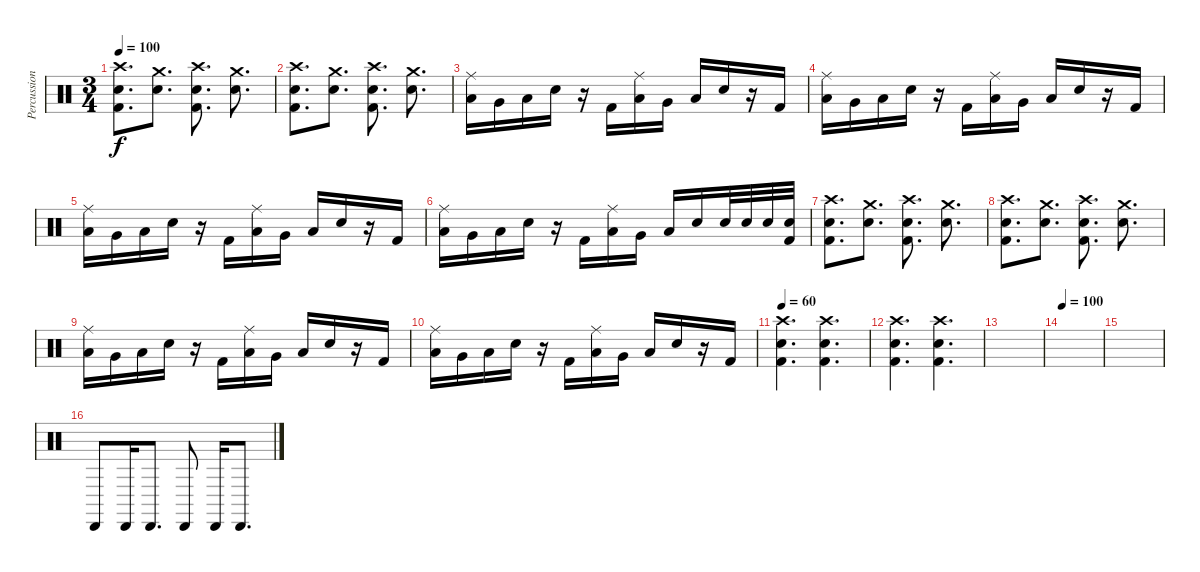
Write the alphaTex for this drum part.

\track ("Percussion" "Percussion") {instrument percussion}
\staff {score}
\articulation defaults
\ts (3 4)
\tempo 100
\clef neutral
\ks c
("Crash high (hit)" "Snare (hit) 2" "Kick (hit) 2").8{d dy f} ("Crash medium (hit)" "Snare (hit) 2").8{d} ("Crash high (hit)" "Snare (hit) 2" "Kick (hit) 2").8{d} ("Crash medium (hit)" "Snare (hit) 2").8{d} |
("Crash high (hit)" "Snare (hit) 2" "Kick (hit) 2").8{d} ("Crash medium (hit)" "Snare (hit) 2").8{d} ("Crash high (hit)" "Snare (hit) 2" "Kick (hit) 2").8{d} ("Crash medium (hit)" "Snare (hit) 2").8{d} |
("Ride (middle)" "Low Floor Tom (hit)").16 "Very Low Tom (hit)".16 "Low Floor Tom (hit)".16 "Snare (hit) 2".16 r.16 "Kick (hit) 2".16 ("Ride (middle)" "Low Floor Tom (hit)").16 "Very Low Tom (hit)".16 "Low Floor Tom (hit)".16 "Snare (hit) 2".16 r.16 "Kick (hit) 2".16 |
("Ride (middle)" "Low Floor Tom (hit)").16 "Very Low Tom (hit)".16 "Low Floor Tom (hit)".16 "Snare (hit) 2".16 r.16 "Kick (hit) 2".16 ("Ride (middle)" "Low Floor Tom (hit)").16 "Very Low Tom (hit)".16 "Low Floor Tom (hit)".16 "Snare (hit) 2".16 r.16 "Kick (hit) 2".16 |
("Ride (middle)" "Low Floor Tom (hit)").16 "Very Low Tom (hit)".16 "Low Floor Tom (hit)".16 "Snare (hit) 2".16 r.16 "Kick (hit) 2".16 ("Ride (middle)" "Low Floor Tom (hit)").16 "Very Low Tom (hit)".16 "Low Floor Tom (hit)".16 "Snare (hit) 2".16 r.16 "Kick (hit) 2".16 |
("Ride (middle)" "Low Floor Tom (hit)").16 "Very Low Tom (hit)".16 "Low Floor Tom (hit)".16 "Snare (hit) 2".16 r.16 "Kick (hit) 2".16 ("Ride (middle)" "Low Floor Tom (hit)").16 "Very Low Tom (hit)".16 "Low Floor Tom (hit)".16 "Snare (hit) 2".16 "Snare (hit) 2".32 "Snare (hit) 2".32 "Snare (hit) 2".32 ("Snare (hit) 2" "Kick (hit) 2").32 |
("Crash high (hit)" "Snare (hit) 2" "Kick (hit) 2").8{d} ("Crash medium (hit)" "Snare (hit) 2").8{d} ("Crash high (hit)" "Snare (hit) 2" "Kick (hit) 2").8{d} ("Crash medium (hit)" "Snare (hit) 2").8{d} |
("Crash high (hit)" "Snare (hit) 2" "Kick (hit) 2").8{d} ("Crash medium (hit)" "Snare (hit) 2").8{d} ("Crash high (hit)" "Snare (hit) 2" "Kick (hit) 2").8{d} ("Crash medium (hit)" "Snare (hit) 2").8{d} |
("Ride (middle)" "Low Floor Tom (hit)").16 "Very Low Tom (hit)".16 "Low Floor Tom (hit)".16 "Snare (hit) 2".16 r.16 "Kick (hit) 2".16 ("Ride (middle)" "Low Floor Tom (hit)").16 "Very Low Tom (hit)".16 "Low Floor Tom (hit)".16 "Snare (hit) 2".16 r.16 "Kick (hit) 2".16 |
("Ride (middle)" "Low Floor Tom (hit)").16 "Very Low Tom (hit)".16 "Low Floor Tom (hit)".16 "Snare (hit) 2".16 r.16 "Kick (hit) 2".16 ("Ride (middle)" "Low Floor Tom (hit)").16 "Very Low Tom (hit)".16 "Low Floor Tom (hit)".16 "Snare (hit) 2".16 r.16 "Kick (hit) 2".16 |
\tempo 60
("Crash high (hit)" "Snare (hit) 2" "Kick (hit) 2").4{d} ("Crash high (hit)" "Snare (hit) 2" "Kick (hit) 2").4{d} |
("Crash high (hit)" "Snare (hit) 2" "Kick (hit) 2").4{d} ("Crash high (hit)" "Snare (hit) 2" "Kick (hit) 2").4{d} |
|
\tempo 100
|
|
"Cabasa (hit)".8 "Cabasa (hit)".16 "Cabasa (hit)".8{d} "Cabasa (hit)".8 "Cabasa (hit)".16 "Cabasa (hit)".8{d}
